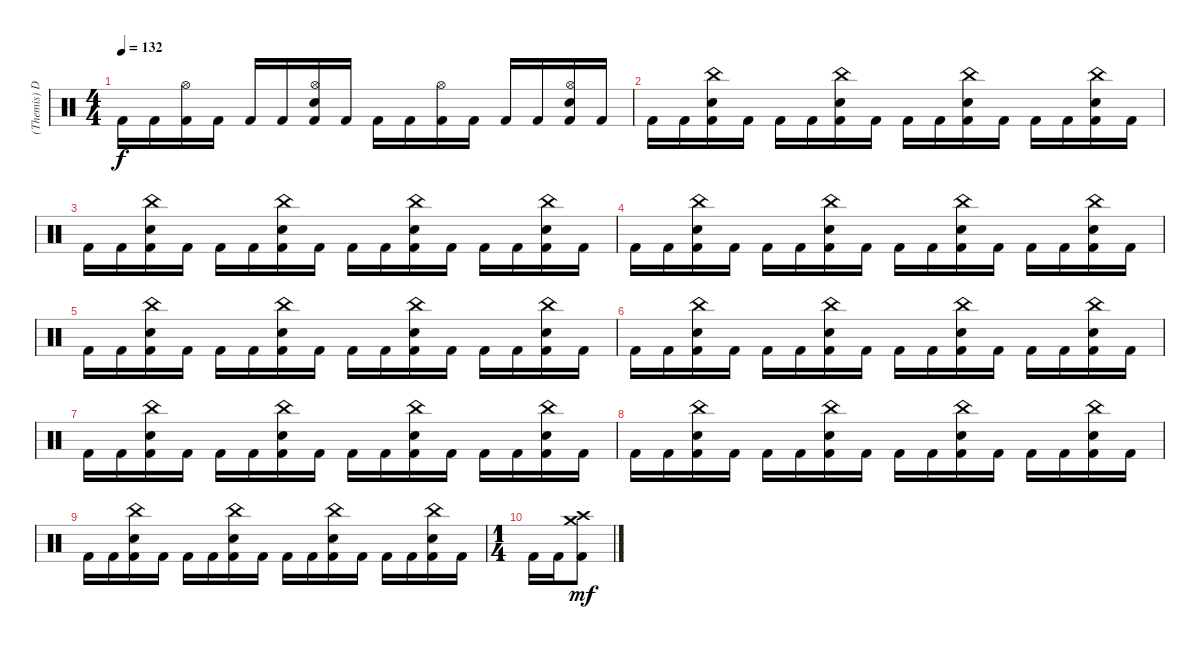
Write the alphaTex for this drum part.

\track ("(Themis) Drums" "(Themis) D") {instrument percussion}
\staff {score}
\articulation defaults
\ts (4 4)
\tempo 132
\clef neutral
\ks c "Kick (hit) 2".16{dy f} "Kick (hit) 2".16
("Hi-Hat (open)" "Kick (hit) 2").16 "Kick (hit) 2".16 "Kick (hit) 2".16 "Kick (hit) 2".16 ("Hi-Hat (open)" "Electric Snare (hit)" "Kick (hit) 2").16 "Kick (hit) 2".16 "Kick (hit) 2".16 "Kick (hit) 2".16 ("Hi-Hat (open)" "Kick (hit) 2").16 "Kick (hit) 2".16 "Kick (hit) 2".16 "Kick (hit) 2".16 ("Hi-Hat (open)" "Electric Snare (hit)" "Kick (hit) 2").16 "Kick (hit) 2".16 |
"Kick (hit) 2".16 "Kick (hit) 2".16 ("China (hit)" "Electric Snare (hit)" "Kick (hit) 2").16 "Kick (hit) 2".16 "Kick (hit) 2".16 "Kick (hit) 2".16 ("China (hit)" "Electric Snare (hit)" "Kick (hit) 2").16 "Kick (hit) 2".16 "Kick (hit) 2".16 "Kick (hit) 2".16 ("China (hit)" "Electric Snare (hit)" "Kick (hit) 2").16 "Kick (hit) 2".16 "Kick (hit) 2".16 "Kick (hit) 2".16 ("China (hit)" "Electric Snare (hit)" "Kick (hit) 2").16 "Kick (hit) 2".16 |
"Kick (hit) 2".16 "Kick (hit) 2".16 ("China (hit)" "Electric Snare (hit)" "Kick (hit) 2").16 "Kick (hit) 2".16 "Kick (hit) 2".16 "Kick (hit) 2".16 ("China (hit)" "Electric Snare (hit)" "Kick (hit) 2").16 "Kick (hit) 2".16 "Kick (hit) 2".16 "Kick (hit) 2".16 ("China (hit)" "Electric Snare (hit)" "Kick (hit) 2").16 "Kick (hit) 2".16 "Kick (hit) 2".16 "Kick (hit) 2".16 ("China (hit)" "Electric Snare (hit)" "Kick (hit) 2").16 "Kick (hit) 2".16 |
"Kick (hit) 2".16 "Kick (hit) 2".16 ("China (hit)" "Electric Snare (hit)" "Kick (hit) 2").16 "Kick (hit) 2".16 "Kick (hit) 2".16 "Kick (hit) 2".16 ("China (hit)" "Electric Snare (hit)" "Kick (hit) 2").16 "Kick (hit) 2".16 "Kick (hit) 2".16 "Kick (hit) 2".16 ("China (hit)" "Electric Snare (hit)" "Kick (hit) 2").16 "Kick (hit) 2".16 "Kick (hit) 2".16 "Kick (hit) 2".16 ("China (hit)" "Electric Snare (hit)" "Kick (hit) 2").16 "Kick (hit) 2".16 |
"Kick (hit) 2".16 "Kick (hit) 2".16 ("China (hit)" "Electric Snare (hit)" "Kick (hit) 2").16 "Kick (hit) 2".16 "Kick (hit) 2".16 "Kick (hit) 2".16 ("China (hit)" "Electric Snare (hit)" "Kick (hit) 2").16 "Kick (hit) 2".16 "Kick (hit) 2".16 "Kick (hit) 2".16 ("China (hit)" "Electric Snare (hit)" "Kick (hit) 2").16 "Kick (hit) 2".16 "Kick (hit) 2".16 "Kick (hit) 2".16 ("China (hit)" "Electric Snare (hit)" "Kick (hit) 2").16 "Kick (hit) 2".16 |
"Kick (hit) 2".16 "Kick (hit) 2".16 ("China (hit)" "Electric Snare (hit)" "Kick (hit) 2").16 "Kick (hit) 2".16 "Kick (hit) 2".16 "Kick (hit) 2".16 ("China (hit)" "Electric Snare (hit)" "Kick (hit) 2").16 "Kick (hit) 2".16 "Kick (hit) 2".16 "Kick (hit) 2".16 ("China (hit)" "Electric Snare (hit)" "Kick (hit) 2").16 "Kick (hit) 2".16 "Kick (hit) 2".16 "Kick (hit) 2".16 ("China (hit)" "Electric Snare (hit)" "Kick (hit) 2").16 "Kick (hit) 2".16 |
"Kick (hit) 2".16 "Kick (hit) 2".16 ("China (hit)" "Electric Snare (hit)" "Kick (hit) 2").16 "Kick (hit) 2".16 "Kick (hit) 2".16 "Kick (hit) 2".16 ("China (hit)" "Electric Snare (hit)" "Kick (hit) 2").16 "Kick (hit) 2".16 "Kick (hit) 2".16 "Kick (hit) 2".16 ("China (hit)" "Electric Snare (hit)" "Kick (hit) 2").16 "Kick (hit) 2".16 "Kick (hit) 2".16 "Kick (hit) 2".16 ("China (hit)" "Electric Snare (hit)" "Kick (hit) 2").16 "Kick (hit) 2".16 |
"Kick (hit) 2".16 "Kick (hit) 2".16 ("China (hit)" "Electric Snare (hit)" "Kick (hit) 2").16 "Kick (hit) 2".16 "Kick (hit) 2".16 "Kick (hit) 2".16 ("China (hit)" "Electric Snare (hit)" "Kick (hit) 2").16 "Kick (hit) 2".16 "Kick (hit) 2".16 "Kick (hit) 2".16 ("China (hit)" "Electric Snare (hit)" "Kick (hit) 2").16 "Kick (hit) 2".16 "Kick (hit) 2".16 "Kick (hit) 2".16 ("China (hit)" "Electric Snare (hit)" "Kick (hit) 2").16 "Kick (hit) 2".16 |
"Kick (hit) 2".16 "Kick (hit) 2".16 ("China (hit)" "Electric Snare (hit)" "Kick (hit) 2").16 "Kick (hit) 2".16 "Kick (hit) 2".16 "Kick (hit) 2".16 ("China (hit)" "Electric Snare (hit)" "Kick (hit) 2").16 "Kick (hit) 2".16 "Kick (hit) 2".16 "Kick (hit) 2".16 ("China (hit)" "Electric Snare (hit)" "Kick (hit) 2").16 "Kick (hit) 2".16 "Kick (hit) 2".16 "Kick (hit) 2".16 ("China (hit)" "Electric Snare (hit)" "Kick (hit) 2").16 "Kick (hit) 2".16 |
\ts (1 4)
"Kick (hit) 2".16 "Kick (hit) 2".16 ("Crash high (hit)" "Crash medium (hit)" "Kick (hit) 2").8{dy mf}
